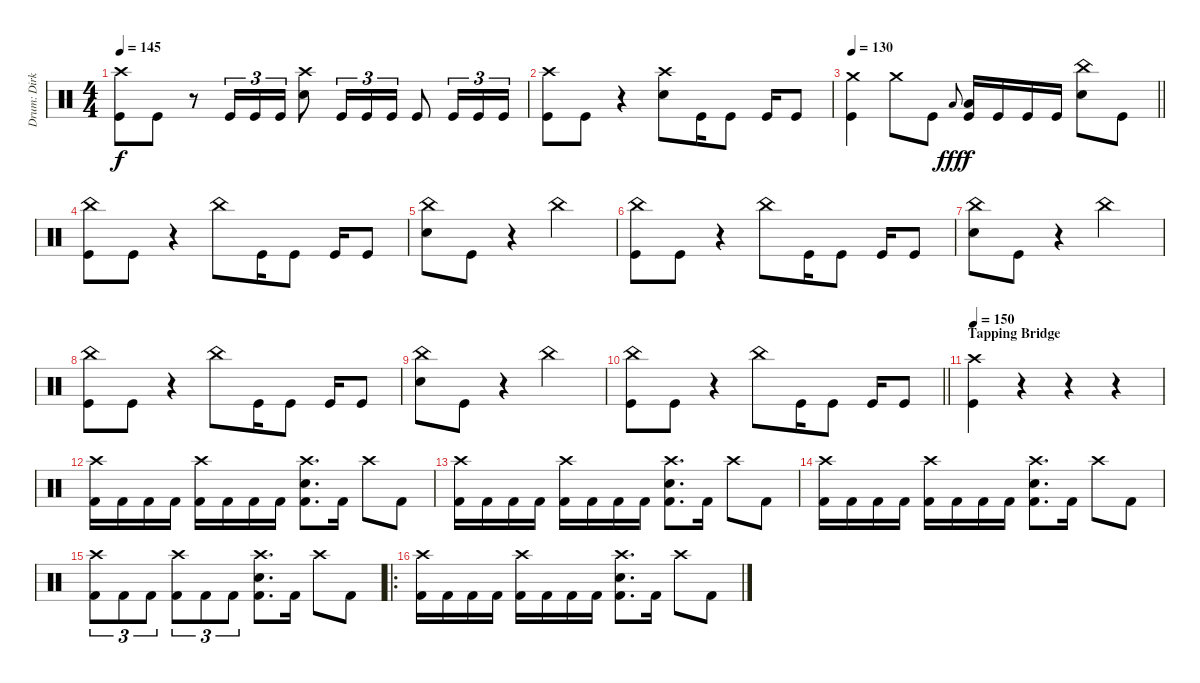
\track ("Drum: Dirk" "Drum: Dirk") {instrument percussion}
\staff {score}
\articulation defaults
\ts (4 4)
\tempo 145
\clef neutral
\ks c
("Crash high (hit)" "Kick (hit)").8{dy f} "Kick (hit)".8 r.8 "Kick (hit)".16{tu (3 2)} "Kick (hit)".16{tu (3 2)} "Kick (hit)".16{tu (3 2)} ("Crash high (hit)" "Electric Snare (hit)").8 "Kick (hit)".16{tu (3 2)} "Kick (hit)".16{tu (3 2)} "Kick (hit)".16{tu (3 2)} "Kick (hit)".8 "Kick (hit)".16{tu (3 2)} "Kick (hit)".16{tu (3 2)} "Kick (hit)".16{tu (3 2)} |
("Crash high (hit)" "Kick (hit)").8 "Kick (hit)".8 r.4 ("Crash high (hit)" "Electric Snare (hit)").8 "Kick (hit)".16 "Kick (hit)".8 "Kick (hit)".16 "Kick (hit)".8 |
\tempo 130
\barLineRight lightlight
("Crash medium (hit)" "Kick (hit)").4 "Crash medium (hit)".8 "Kick (hit)".8 "Low Tom (hit)".8{gr onbeat dy fff} ("Low Tom (hit)" "Kick (hit)").16{dy f} "Kick (hit)".16 "Kick (hit)".16 "Kick (hit)".16 ("China (hit)" "Electric Snare (hit)").8 "Kick (hit)".8 |
\section ("" "")
("China (hit)" "Kick (hit)").8 "Kick (hit)".8 r.4 "China (hit)".8 "Kick (hit)".16 "Kick (hit)".8 "Kick (hit)".16 "Kick (hit)".8 |
("China (hit)" "Electric Snare (hit)").8 "Kick (hit)".8 r.4 "China (hit)".2 |
("China (hit)" "Kick (hit)").8 "Kick (hit)".8 r.4 "China (hit)".8 "Kick (hit)".16 "Kick (hit)".8 "Kick (hit)".16 "Kick (hit)".8 |
("China (hit)" "Electric Snare (hit)").8 "Kick (hit)".8 r.4 "China (hit)".2 |
("China (hit)" "Kick (hit)").8 "Kick (hit)".8 r.4 "China (hit)".8 "Kick (hit)".16 "Kick (hit)".8 "Kick (hit)".16 "Kick (hit)".8 |
("China (hit)" "Electric Snare (hit)").8 "Kick (hit)".8 r.4 "China (hit)".2 |
\barLineRight lightlight
("China (hit)" "Kick (hit)").8 "Kick (hit)".8 r.4 "China (hit)".8 "Kick (hit)".16 "Kick (hit)".8 "Kick (hit)".16 "Kick (hit)".8 |
\section ("" "Tapping Bridge")
\tempo 150
("Crash high (hit)" "Kick (hit)").4 r.4{volume 0} r.4 r.4 |
("Crash high (hit)" "Kick (hit) 2").16{volume 12} "Kick (hit) 2".16 "Kick (hit) 2".16 "Kick (hit) 2".16 ("Crash high (hit)" "Kick (hit) 2").16 "Kick (hit) 2".16 "Kick (hit) 2".16 "Kick (hit) 2".16 ("Crash high (hit)" "Electric Snare (hit)" "Kick (hit) 2").8{d} "Kick (hit) 2".16 "Crash high (hit)".8 "Kick (hit) 2".8 |
("Crash high (hit)" "Kick (hit) 2").16 "Kick (hit) 2".16 "Kick (hit) 2".16 "Kick (hit) 2".16 ("Crash high (hit)" "Kick (hit) 2").16 "Kick (hit) 2".16 "Kick (hit) 2".16 "Kick (hit) 2".16 ("Crash high (hit)" "Electric Snare (hit)" "Kick (hit) 2").8{d} "Kick (hit) 2".16 "Crash high (hit)".8 "Kick (hit) 2".8 |
("Crash high (hit)" "Kick (hit) 2").16 "Kick (hit) 2".16 "Kick (hit) 2".16 "Kick (hit) 2".16 ("Crash high (hit)" "Kick (hit) 2").16 "Kick (hit) 2".16 "Kick (hit) 2".16 "Kick (hit) 2".16 ("Crash high (hit)" "Electric Snare (hit)" "Kick (hit) 2").8{d} "Kick (hit) 2".16 "Crash high (hit)".8 "Kick (hit) 2".8 |
("Crash high (hit)" "Kick (hit) 2").8{tu (3 2)} "Kick (hit) 2".8{tu (3 2)} "Kick (hit) 2".8{tu (3 2)} ("Crash high (hit)" "Kick (hit) 2").8{tu (3 2)} "Kick (hit) 2".8{tu (3 2)} "Kick (hit) 2".8{tu (3 2)} ("Crash high (hit)" "Electric Snare (hit)" "Kick (hit) 2").8{d} "Kick (hit) 2".16 "Crash high (hit)".8 "Kick (hit) 2".8 |
\ro
("Crash high (hit)" "Kick (hit) 2").16 "Kick (hit) 2".16 "Kick (hit) 2".16 "Kick (hit) 2".16 ("Crash high (hit)" "Kick (hit) 2").16 "Kick (hit) 2".16 "Kick (hit) 2".16 "Kick (hit) 2".16 ("Crash high (hit)" "Electric Snare (hit)" "Kick (hit) 2").8{d} "Kick (hit) 2".16 "Crash high (hit)".8 "Kick (hit) 2".8
